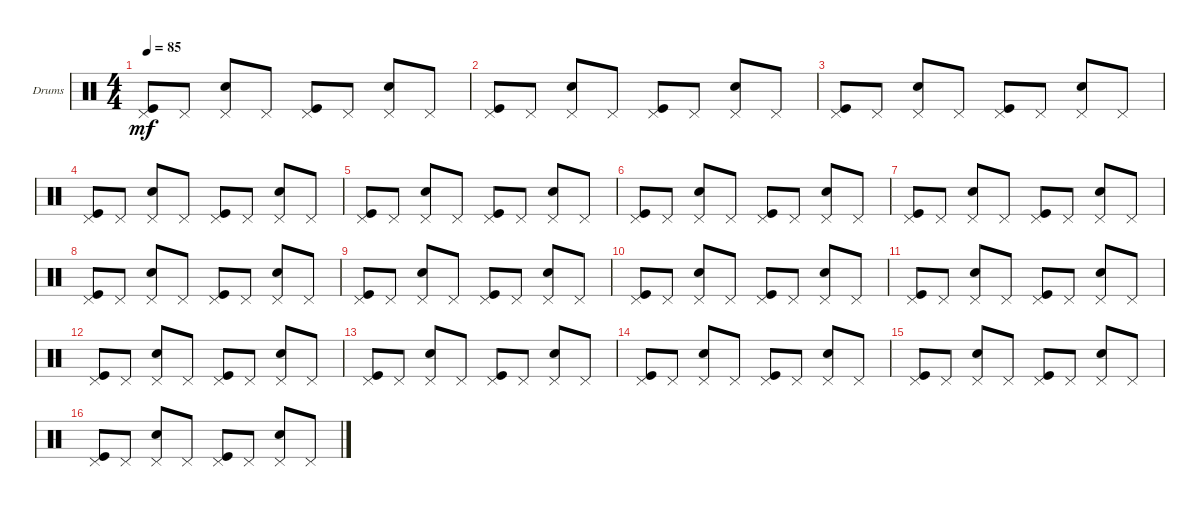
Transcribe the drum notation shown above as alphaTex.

\defaultSystemsLayout 4
\bracketExtendMode groupsimilarinstruments
\firstSystemTrackNameOrientation horizontal
\otherSystemsTrackNameOrientation horizontal
\track ("Drumkit" "Drums") {instrument percussion}
\staff {score}
\articulation defaults
\ts (4 4)
\tempo 85
\clef neutral
\ks c
("Kick (hit)" "Pedal Hi-Hat (hit)").8{dy mf} "Pedal Hi-Hat (hit)".8 ("Snare (hit) 2" "Pedal Hi-Hat (hit)").8 "Pedal Hi-Hat (hit)".8 ("Kick (hit)" "Pedal Hi-Hat (hit)").8 "Pedal Hi-Hat (hit)".8 ("Snare (hit) 2" "Pedal Hi-Hat (hit)").8 "Pedal Hi-Hat (hit)".8 |
("Kick (hit)" "Pedal Hi-Hat (hit)").8 "Pedal Hi-Hat (hit)".8 ("Snare (hit) 2" "Pedal Hi-Hat (hit)").8 "Pedal Hi-Hat (hit)".8 ("Kick (hit)" "Pedal Hi-Hat (hit)").8 "Pedal Hi-Hat (hit)".8 ("Snare (hit) 2" "Pedal Hi-Hat (hit)").8 "Pedal Hi-Hat (hit)".8 |
("Kick (hit)" "Pedal Hi-Hat (hit)").8 "Pedal Hi-Hat (hit)".8 ("Snare (hit) 2" "Pedal Hi-Hat (hit)").8 "Pedal Hi-Hat (hit)".8 ("Kick (hit)" "Pedal Hi-Hat (hit)").8 "Pedal Hi-Hat (hit)".8 ("Snare (hit) 2" "Pedal Hi-Hat (hit)").8 "Pedal Hi-Hat (hit)".8 |
("Kick (hit)" "Pedal Hi-Hat (hit)").8 "Pedal Hi-Hat (hit)".8 ("Snare (hit) 2" "Pedal Hi-Hat (hit)").8 "Pedal Hi-Hat (hit)".8 ("Kick (hit)" "Pedal Hi-Hat (hit)").8 "Pedal Hi-Hat (hit)".8 ("Snare (hit) 2" "Pedal Hi-Hat (hit)").8 "Pedal Hi-Hat (hit)".8 |
("Kick (hit)" "Pedal Hi-Hat (hit)").8 "Pedal Hi-Hat (hit)".8 ("Snare (hit) 2" "Pedal Hi-Hat (hit)").8 "Pedal Hi-Hat (hit)".8 ("Kick (hit)" "Pedal Hi-Hat (hit)").8 "Pedal Hi-Hat (hit)".8 ("Snare (hit) 2" "Pedal Hi-Hat (hit)").8 "Pedal Hi-Hat (hit)".8 |
("Kick (hit)" "Pedal Hi-Hat (hit)").8 "Pedal Hi-Hat (hit)".8 ("Snare (hit) 2" "Pedal Hi-Hat (hit)").8 "Pedal Hi-Hat (hit)".8 ("Kick (hit)" "Pedal Hi-Hat (hit)").8 "Pedal Hi-Hat (hit)".8 ("Snare (hit) 2" "Pedal Hi-Hat (hit)").8 "Pedal Hi-Hat (hit)".8 |
("Kick (hit)" "Pedal Hi-Hat (hit)").8 "Pedal Hi-Hat (hit)".8 ("Snare (hit) 2" "Pedal Hi-Hat (hit)").8 "Pedal Hi-Hat (hit)".8 ("Kick (hit)" "Pedal Hi-Hat (hit)").8 "Pedal Hi-Hat (hit)".8 ("Snare (hit) 2" "Pedal Hi-Hat (hit)").8 "Pedal Hi-Hat (hit)".8 |
("Kick (hit)" "Pedal Hi-Hat (hit)").8 "Pedal Hi-Hat (hit)".8 ("Snare (hit) 2" "Pedal Hi-Hat (hit)").8 "Pedal Hi-Hat (hit)".8 ("Kick (hit)" "Pedal Hi-Hat (hit)").8 "Pedal Hi-Hat (hit)".8 ("Snare (hit) 2" "Pedal Hi-Hat (hit)").8 "Pedal Hi-Hat (hit)".8 |
("Kick (hit)" "Pedal Hi-Hat (hit)").8 "Pedal Hi-Hat (hit)".8 ("Snare (hit) 2" "Pedal Hi-Hat (hit)").8 "Pedal Hi-Hat (hit)".8 ("Kick (hit)" "Pedal Hi-Hat (hit)").8 "Pedal Hi-Hat (hit)".8 ("Snare (hit) 2" "Pedal Hi-Hat (hit)").8 "Pedal Hi-Hat (hit)".8 |
("Kick (hit)" "Pedal Hi-Hat (hit)").8 "Pedal Hi-Hat (hit)".8 ("Snare (hit) 2" "Pedal Hi-Hat (hit)").8 "Pedal Hi-Hat (hit)".8 ("Kick (hit)" "Pedal Hi-Hat (hit)").8 "Pedal Hi-Hat (hit)".8 ("Snare (hit) 2" "Pedal Hi-Hat (hit)").8 "Pedal Hi-Hat (hit)".8 |
("Kick (hit)" "Pedal Hi-Hat (hit)").8 "Pedal Hi-Hat (hit)".8 ("Snare (hit) 2" "Pedal Hi-Hat (hit)").8 "Pedal Hi-Hat (hit)".8 ("Kick (hit)" "Pedal Hi-Hat (hit)").8 "Pedal Hi-Hat (hit)".8 ("Snare (hit) 2" "Pedal Hi-Hat (hit)").8 "Pedal Hi-Hat (hit)".8 |
("Kick (hit)" "Pedal Hi-Hat (hit)").8 "Pedal Hi-Hat (hit)".8 ("Snare (hit) 2" "Pedal Hi-Hat (hit)").8 "Pedal Hi-Hat (hit)".8 ("Kick (hit)" "Pedal Hi-Hat (hit)").8 "Pedal Hi-Hat (hit)".8 ("Snare (hit) 2" "Pedal Hi-Hat (hit)").8 "Pedal Hi-Hat (hit)".8 |
("Kick (hit)" "Pedal Hi-Hat (hit)").8 "Pedal Hi-Hat (hit)".8 ("Snare (hit) 2" "Pedal Hi-Hat (hit)").8 "Pedal Hi-Hat (hit)".8 ("Kick (hit)" "Pedal Hi-Hat (hit)").8 "Pedal Hi-Hat (hit)".8 ("Snare (hit) 2" "Pedal Hi-Hat (hit)").8 "Pedal Hi-Hat (hit)".8 |
("Kick (hit)" "Pedal Hi-Hat (hit)").8 "Pedal Hi-Hat (hit)".8 ("Snare (hit) 2" "Pedal Hi-Hat (hit)").8 "Pedal Hi-Hat (hit)".8 ("Kick (hit)" "Pedal Hi-Hat (hit)").8 "Pedal Hi-Hat (hit)".8 ("Snare (hit) 2" "Pedal Hi-Hat (hit)").8 "Pedal Hi-Hat (hit)".8 |
("Kick (hit)" "Pedal Hi-Hat (hit)").8 "Pedal Hi-Hat (hit)".8 ("Snare (hit) 2" "Pedal Hi-Hat (hit)").8 "Pedal Hi-Hat (hit)".8 ("Kick (hit)" "Pedal Hi-Hat (hit)").8 "Pedal Hi-Hat (hit)".8 ("Snare (hit) 2" "Pedal Hi-Hat (hit)").8 "Pedal Hi-Hat (hit)".8 |
("Kick (hit)" "Pedal Hi-Hat (hit)").8 "Pedal Hi-Hat (hit)".8 ("Snare (hit) 2" "Pedal Hi-Hat (hit)").8 "Pedal Hi-Hat (hit)".8 ("Kick (hit)" "Pedal Hi-Hat (hit)").8 "Pedal Hi-Hat (hit)".8 ("Snare (hit) 2" "Pedal Hi-Hat (hit)").8 "Pedal Hi-Hat (hit)".8
